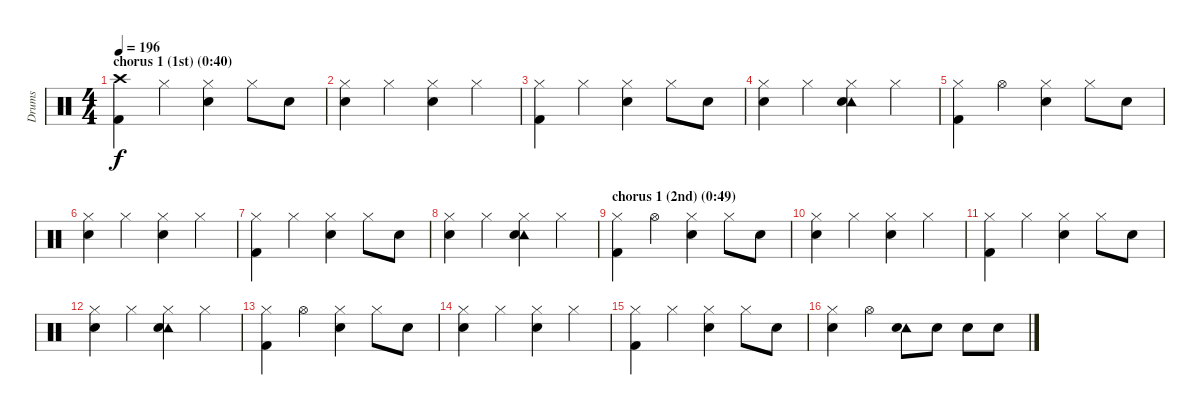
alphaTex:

\track ("Drums" "Drums") {instrument percussion}
\staff {score}
\articulation defaults
\ts (4 4)
\section ("" "chorus 1 (1st) (0:40)")
\tempo 196
\clef neutral
\ks c
("Crash high (hit)" "Kick (hit) 2").4{dy f} "Hi-Hat (closed)".4 ("Hi-Hat (closed)" "Snare (hit) 2").4 "Hi-Hat (closed)".8 "Snare (hit) 2".8 |
("Hi-Hat (closed)" "Snare (hit) 2").4 "Hi-Hat (closed)".4 ("Hi-Hat (closed)" "Snare (hit) 2").4 "Hi-Hat (closed)".4 |
("Hi-Hat (closed)" "Kick (hit) 2").4 "Hi-Hat (closed)".4 ("Hi-Hat (closed)" "Snare (hit) 2").4 "Hi-Hat (closed)".8 "Snare (hit) 2".8 |
("Hi-Hat (closed)" "Snare (hit) 2").4 "Hi-Hat (closed)".4 ("Hi-Hat (closed)" "Tambourine (hit)" "Snare (hit) 2").4 "Hi-Hat (closed)".4 |
("Hi-Hat (closed)" "Kick (hit) 2").4 "Hi-Hat (open)".4 ("Hi-Hat (closed)" "Snare (hit) 2").4 "Hi-Hat (closed)".8 "Snare (hit) 2".8 |
("Hi-Hat (closed)" "Snare (hit) 2").4 "Hi-Hat (closed)".4 ("Hi-Hat (closed)" "Snare (hit) 2").4 "Hi-Hat (closed)".4 |
("Hi-Hat (closed)" "Kick (hit) 2").4 "Hi-Hat (closed)".4 ("Hi-Hat (closed)" "Snare (hit) 2").4 "Hi-Hat (closed)".8 "Snare (hit) 2".8 |
("Hi-Hat (closed)" "Snare (hit) 2").4 "Hi-Hat (closed)".4 ("Hi-Hat (closed)" "Tambourine (hit)" "Snare (hit) 2").4 "Hi-Hat (closed)".4 |
\section ("" "chorus 1 (2nd) (0:49)")
("Hi-Hat (closed)" "Kick (hit) 2").4 "Hi-Hat (open)".4 ("Hi-Hat (closed)" "Snare (hit) 2").4 "Hi-Hat (closed)".8 "Snare (hit) 2".8 |
("Hi-Hat (closed)" "Snare (hit) 2").4 "Hi-Hat (closed)".4 ("Hi-Hat (closed)" "Snare (hit) 2").4 "Hi-Hat (closed)".4 |
("Hi-Hat (closed)" "Kick (hit) 2").4 "Hi-Hat (closed)".4 ("Hi-Hat (closed)" "Snare (hit) 2").4 "Hi-Hat (closed)".8 "Snare (hit) 2".8 |
("Hi-Hat (closed)" "Snare (hit) 2").4 "Hi-Hat (closed)".4 ("Hi-Hat (closed)" "Tambourine (hit)" "Snare (hit) 2").4 "Hi-Hat (closed)".4 |
("Hi-Hat (closed)" "Kick (hit) 2").4 "Hi-Hat (open)".4 ("Hi-Hat (closed)" "Snare (hit) 2").4 "Hi-Hat (closed)".8 "Snare (hit) 2".8 |
("Hi-Hat (closed)" "Snare (hit) 2").4 "Hi-Hat (closed)".4 ("Hi-Hat (closed)" "Snare (hit) 2").4 "Hi-Hat (closed)".4 |
("Hi-Hat (closed)" "Kick (hit) 2").4 "Hi-Hat (closed)".4 ("Hi-Hat (closed)" "Snare (hit) 2").4 "Hi-Hat (closed)".8 "Snare (hit) 2".8 |
("Hi-Hat (closed)" "Snare (hit) 2").4 "Hi-Hat (open)".4 ("Tambourine (hit)" "Snare (hit) 2").8 "Snare (hit) 2".8 "Snare (hit) 2".8 "Snare (hit) 2".8
